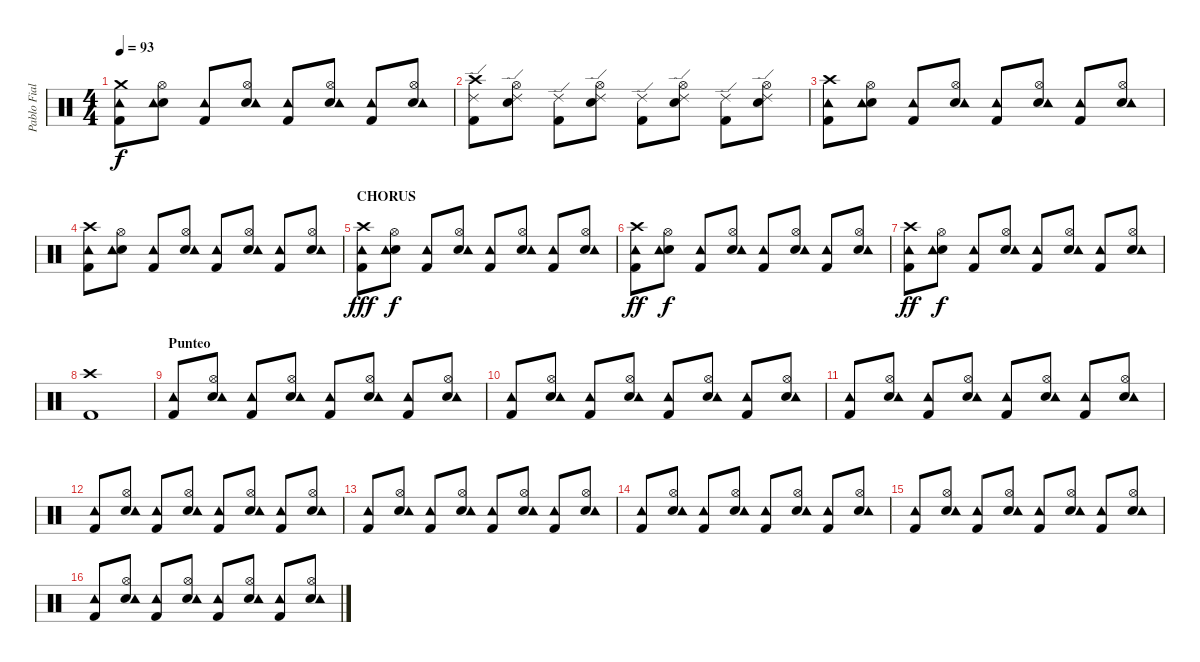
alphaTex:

\track ("Pablo Fiallo" "Pablo Fial") {instrument percussion}
\staff {score}
\articulation defaults
\ts (4 4)
\tempo 93
\clef neutral
\ks c
("Crash medium (hit)" "Kick (hit) 2" "Tambourine (hit)").8{dy f} ("Hi-Hat (open)" "Snare (hit) 2" "Tambourine (hit)").8 ("Kick (hit) 2" "Tambourine (hit)").8 ("Hi-Hat (open)" "Snare (hit) 2" "Tambourine (hit)").8 ("Kick (hit) 2" "Tambourine (hit)").8 ("Hi-Hat (open)" "Snare (hit) 2" "Tambourine (hit)").8 ("Kick (hit) 2" "Tambourine (hit)").8 ("Hi-Hat (open)" "Snare (hit) 2" "Tambourine (hit)").8 |
("Crash high (hit)" "Kick (hit) 2" "Ride (edge) 2").8 ("Hi-Hat (open)" "Snare (hit) 2" "Ride (edge) 2").8 ("Kick (hit) 2" "Ride (edge) 2").8 ("Hi-Hat (open)" "Snare (hit) 2" "Ride (edge) 2").8 ("Kick (hit) 2" "Ride (edge) 2").8 ("Hi-Hat (open)" "Snare (hit) 2" "Ride (edge) 2").8 ("Kick (hit) 2" "Ride (edge) 2").8 ("Hi-Hat (open)" "Snare (hit) 2" "Ride (edge) 2").8 |
("Crash high (hit)" "Kick (hit) 2" "Tambourine (hit)").8 ("Hi-Hat (open)" "Snare (hit) 2" "Tambourine (hit)").8 ("Kick (hit) 2" "Tambourine (hit)").8 ("Hi-Hat (open)" "Snare (hit) 2" "Tambourine (hit)").8 ("Kick (hit) 2" "Tambourine (hit)").8 ("Hi-Hat (open)" "Snare (hit) 2" "Tambourine (hit)").8 ("Kick (hit) 2" "Tambourine (hit)").8 ("Hi-Hat (open)" "Snare (hit) 2" "Tambourine (hit)").8 |
("Crash high (hit)" "Kick (hit) 2" "Tambourine (hit)").8 ("Hi-Hat (open)" "Snare (hit) 2" "Tambourine (hit)").8 ("Kick (hit) 2" "Tambourine (hit)").8 ("Hi-Hat (open)" "Snare (hit) 2" "Tambourine (hit)").8 ("Kick (hit) 2" "Tambourine (hit)").8 ("Hi-Hat (open)" "Snare (hit) 2" "Tambourine (hit)").8 ("Kick (hit) 2" "Tambourine (hit)").8 ("Hi-Hat (open)" "Snare (hit) 2" "Tambourine (hit)").8 |
\section ("" "CHORUS")
("Crash high (hit)" "Kick (hit) 2" "Tambourine (hit)").8{dy fff} ("Hi-Hat (open)" "Snare (hit) 2" "Tambourine (hit)").8{dy f} ("Kick (hit) 2" "Tambourine (hit)").8 ("Hi-Hat (open)" "Snare (hit) 2" "Tambourine (hit)").8 ("Kick (hit) 2" "Tambourine (hit)").8 ("Hi-Hat (open)" "Snare (hit) 2" "Tambourine (hit)").8 ("Kick (hit) 2" "Tambourine (hit)").8 ("Hi-Hat (open)" "Snare (hit) 2" "Tambourine (hit)").8 |
("Crash high (hit)" "Kick (hit) 2" "Tambourine (hit)").8{dy ff} ("Hi-Hat (open)" "Snare (hit) 2" "Tambourine (hit)").8{dy f} ("Kick (hit) 2" "Tambourine (hit)").8 ("Hi-Hat (open)" "Snare (hit) 2" "Tambourine (hit)").8 ("Kick (hit) 2" "Tambourine (hit)").8 ("Hi-Hat (open)" "Snare (hit) 2" "Tambourine (hit)").8 ("Kick (hit) 2" "Tambourine (hit)").8 ("Hi-Hat (open)" "Snare (hit) 2" "Tambourine (hit)").8 |
("Crash high (hit)" "Kick (hit) 2" "Tambourine (hit)").8{dy ff} ("Hi-Hat (open)" "Snare (hit) 2" "Tambourine (hit)").8{dy f} ("Kick (hit) 2" "Tambourine (hit)").8 ("Hi-Hat (open)" "Snare (hit) 2" "Tambourine (hit)").8 ("Kick (hit) 2" "Tambourine (hit)").8 ("Hi-Hat (open)" "Snare (hit) 2" "Tambourine (hit)").8 ("Kick (hit) 2" "Tambourine (hit)").8 ("Hi-Hat (open)" "Snare (hit) 2" "Tambourine (hit)").8 |
("Kick (hit) 2" "Crash high (hit)").1 |
\section ("" "Punteo")
("Kick (hit) 2" "Tambourine (hit)").8 ("Hi-Hat (open)" "Snare (hit) 2" "Tambourine (hit)").8 ("Kick (hit) 2" "Tambourine (hit)").8 ("Hi-Hat (open)" "Snare (hit) 2" "Tambourine (hit)").8 ("Kick (hit) 2" "Tambourine (hit)").8 ("Hi-Hat (open)" "Snare (hit) 2" "Tambourine (hit)").8 ("Kick (hit) 2" "Tambourine (hit)").8 ("Hi-Hat (open)" "Snare (hit) 2" "Tambourine (hit)").8 |
("Kick (hit) 2" "Tambourine (hit)").8 ("Hi-Hat (open)" "Snare (hit) 2" "Tambourine (hit)").8 ("Kick (hit) 2" "Tambourine (hit)").8 ("Hi-Hat (open)" "Snare (hit) 2" "Tambourine (hit)").8 ("Kick (hit) 2" "Tambourine (hit)").8 ("Hi-Hat (open)" "Snare (hit) 2" "Tambourine (hit)").8 ("Kick (hit) 2" "Tambourine (hit)").8 ("Hi-Hat (open)" "Snare (hit) 2" "Tambourine (hit)").8 |
("Kick (hit) 2" "Tambourine (hit)").8 ("Hi-Hat (open)" "Snare (hit) 2" "Tambourine (hit)").8 ("Kick (hit) 2" "Tambourine (hit)").8 ("Hi-Hat (open)" "Snare (hit) 2" "Tambourine (hit)").8 ("Kick (hit) 2" "Tambourine (hit)").8 ("Hi-Hat (open)" "Snare (hit) 2" "Tambourine (hit)").8 ("Kick (hit) 2" "Tambourine (hit)").8 ("Hi-Hat (open)" "Snare (hit) 2" "Tambourine (hit)").8 |
("Kick (hit) 2" "Tambourine (hit)").8 ("Hi-Hat (open)" "Snare (hit) 2" "Tambourine (hit)").8 ("Kick (hit) 2" "Tambourine (hit)").8 ("Hi-Hat (open)" "Snare (hit) 2" "Tambourine (hit)").8 ("Kick (hit) 2" "Tambourine (hit)").8 ("Hi-Hat (open)" "Snare (hit) 2" "Tambourine (hit)").8 ("Kick (hit) 2" "Tambourine (hit)").8 ("Hi-Hat (open)" "Snare (hit) 2" "Tambourine (hit)").8 |
("Kick (hit) 2" "Tambourine (hit)").8 ("Hi-Hat (open)" "Snare (hit) 2" "Tambourine (hit)").8 ("Kick (hit) 2" "Tambourine (hit)").8 ("Hi-Hat (open)" "Snare (hit) 2" "Tambourine (hit)").8 ("Kick (hit) 2" "Tambourine (hit)").8 ("Hi-Hat (open)" "Snare (hit) 2" "Tambourine (hit)").8 ("Kick (hit) 2" "Tambourine (hit)").8 ("Hi-Hat (open)" "Snare (hit) 2" "Tambourine (hit)").8 |
("Kick (hit) 2" "Tambourine (hit)").8 ("Hi-Hat (open)" "Snare (hit) 2" "Tambourine (hit)").8 ("Kick (hit) 2" "Tambourine (hit)").8 ("Hi-Hat (open)" "Snare (hit) 2" "Tambourine (hit)").8 ("Kick (hit) 2" "Tambourine (hit)").8 ("Hi-Hat (open)" "Snare (hit) 2" "Tambourine (hit)").8 ("Kick (hit) 2" "Tambourine (hit)").8 ("Hi-Hat (open)" "Snare (hit) 2" "Tambourine (hit)").8 |
("Kick (hit) 2" "Tambourine (hit)").8 ("Hi-Hat (open)" "Snare (hit) 2" "Tambourine (hit)").8 ("Kick (hit) 2" "Tambourine (hit)").8 ("Hi-Hat (open)" "Snare (hit) 2" "Tambourine (hit)").8 ("Kick (hit) 2" "Tambourine (hit)").8 ("Hi-Hat (open)" "Snare (hit) 2" "Tambourine (hit)").8 ("Kick (hit) 2" "Tambourine (hit)").8 ("Hi-Hat (open)" "Snare (hit) 2" "Tambourine (hit)").8 |
("Kick (hit) 2" "Tambourine (hit)").8 ("Hi-Hat (open)" "Snare (hit) 2" "Tambourine (hit)").8 ("Kick (hit) 2" "Tambourine (hit)").8 ("Hi-Hat (open)" "Snare (hit) 2" "Tambourine (hit)").8 ("Kick (hit) 2" "Tambourine (hit)").8 ("Hi-Hat (open)" "Snare (hit) 2" "Tambourine (hit)").8 ("Kick (hit) 2" "Tambourine (hit)").8 ("Hi-Hat (open)" "Snare (hit) 2" "Tambourine (hit)").8
